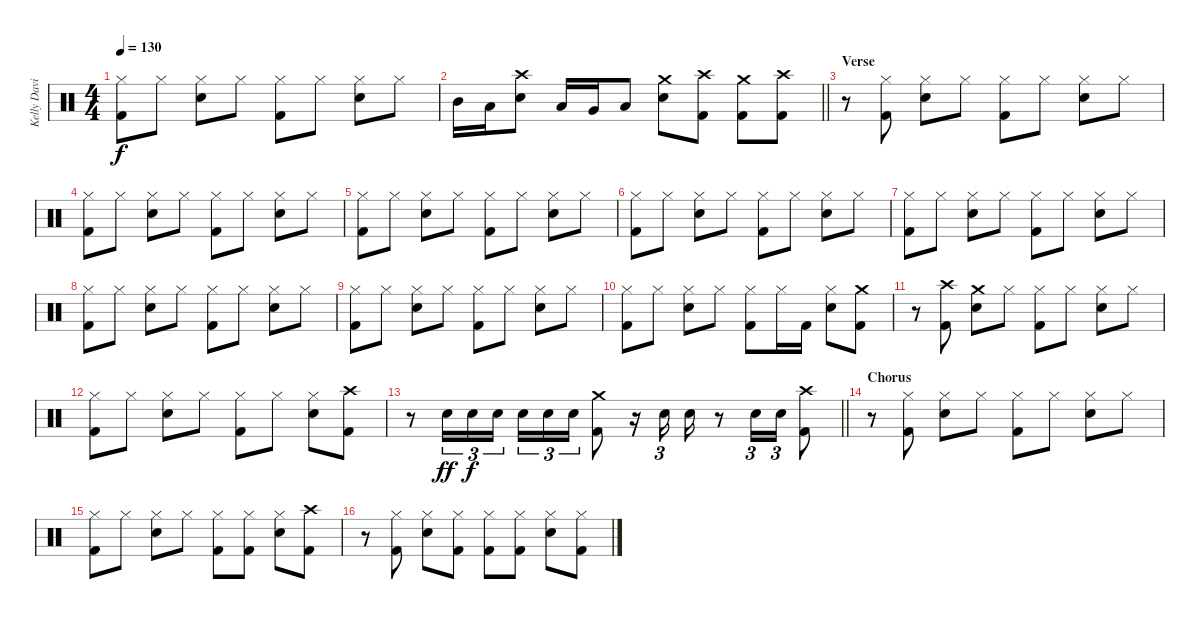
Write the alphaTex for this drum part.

\track ("Kelly David Smith" "Kelly Davi") {instrument percussion}
\staff {score}
\articulation defaults
\ts (4 4)
\tempo 130
\clef neutral
\ks c
("Hi-Hat (closed)" "Kick (hit) 2").8{dy f} "Hi-Hat (closed)".8 ("Hi-Hat (closed)" "Snare (hit) 2").8 "Hi-Hat (closed)".8 ("Hi-Hat (closed)" "Kick (hit) 2").8 "Hi-Hat (closed)".8 ("Hi-Hat (closed)" "Snare (hit) 2").8 "Hi-Hat (closed)".8 |
\barLineRight lightlight "Mid Tom (hit)".16 "Low Tom (hit)".16
("Crash high (hit)" "Snare (hit) 2").8 "Low Tom (hit)".16 "Very Low Tom (hit)".16 "Low Floor Tom (hit)".8 ("Crash medium (hit)" "Snare (hit) 2").8 ("Crash high (hit)" "Kick (hit) 2").8 ("Crash medium (hit)" "Kick (hit) 2").8 ("Crash high (hit)" "Kick (hit) 2").8 |
\section ("" "Verse")
r.8 ("Hi-Hat (closed)" "Kick (hit) 2").8 ("Hi-Hat (closed)" "Snare (hit) 2").8 "Hi-Hat (closed)".8 ("Hi-Hat (closed)" "Kick (hit) 2").8 "Hi-Hat (closed)".8 ("Hi-Hat (closed)" "Snare (hit) 2").8 "Hi-Hat (closed)".8 |
("Hi-Hat (closed)" "Kick (hit) 2").8 "Hi-Hat (closed)".8 ("Hi-Hat (closed)" "Snare (hit) 2").8 "Hi-Hat (closed)".8 ("Hi-Hat (closed)" "Kick (hit) 2").8 "Hi-Hat (closed)".8 ("Hi-Hat (closed)" "Snare (hit) 2").8 "Hi-Hat (closed)".8 |
("Hi-Hat (closed)" "Kick (hit) 2").8 "Hi-Hat (closed)".8 ("Hi-Hat (closed)" "Snare (hit) 2").8 "Hi-Hat (closed)".8 ("Hi-Hat (closed)" "Kick (hit) 2").8 "Hi-Hat (closed)".8 ("Hi-Hat (closed)" "Snare (hit) 2").8 "Hi-Hat (closed)".8 |
("Hi-Hat (closed)" "Kick (hit) 2").8 "Hi-Hat (closed)".8 ("Hi-Hat (closed)" "Snare (hit) 2").8 "Hi-Hat (closed)".8 ("Hi-Hat (closed)" "Kick (hit) 2").8 "Hi-Hat (closed)".8 ("Hi-Hat (closed)" "Snare (hit) 2").8 "Hi-Hat (closed)".8 |
("Hi-Hat (closed)" "Kick (hit) 2").8 "Hi-Hat (closed)".8 ("Hi-Hat (closed)" "Snare (hit) 2").8 "Hi-Hat (closed)".8 ("Hi-Hat (closed)" "Kick (hit) 2").8 "Hi-Hat (closed)".8 ("Hi-Hat (closed)" "Snare (hit) 2").8 "Hi-Hat (closed)".8 |
("Hi-Hat (closed)" "Kick (hit) 2").8 "Hi-Hat (closed)".8 ("Hi-Hat (closed)" "Snare (hit) 2").8 "Hi-Hat (closed)".8 ("Hi-Hat (closed)" "Kick (hit) 2").8 "Hi-Hat (closed)".8 ("Hi-Hat (closed)" "Snare (hit) 2").8 "Hi-Hat (closed)".8 |
("Hi-Hat (closed)" "Kick (hit) 2").8 "Hi-Hat (closed)".8 ("Hi-Hat (closed)" "Snare (hit) 2").8 "Hi-Hat (closed)".8 ("Hi-Hat (closed)" "Kick (hit) 2").8 "Hi-Hat (closed)".8 ("Hi-Hat (closed)" "Snare (hit) 2").8 "Hi-Hat (closed)".8 |
("Hi-Hat (closed)" "Kick (hit) 2").8 "Hi-Hat (closed)".8 ("Hi-Hat (closed)" "Snare (hit) 2").8 "Hi-Hat (closed)".8 ("Hi-Hat (closed)" "Kick (hit) 2").8 "Hi-Hat (closed)".16 "Kick (hit) 2".16 ("Hi-Hat (closed)" "Snare (hit) 2").8 ("Crash medium (hit)" "Kick (hit) 2").8 |
r.8 ("Crash high (hit)" "Kick (hit) 2").8 ("Crash medium (hit)" "Snare (hit) 2").8 "Hi-Hat (closed)".8 ("Hi-Hat (closed)" "Kick (hit) 2").8 "Hi-Hat (closed)".8 ("Hi-Hat (closed)" "Snare (hit) 2").8 "Hi-Hat (closed)".8 |
("Hi-Hat (closed)" "Kick (hit) 2").8 "Hi-Hat (closed)".8 ("Hi-Hat (closed)" "Snare (hit) 2").8 "Hi-Hat (closed)".8 ("Hi-Hat (closed)" "Kick (hit) 2").8 "Hi-Hat (closed)".8 ("Hi-Hat (closed)" "Snare (hit) 2").8 ("Crash high (hit)" "Kick (hit) 2").8 |
\barLineRight lightlight
r.8 "Snare (hit) 2".16{tu (3 2) dy ff} "Snare (hit) 2".16{tu (3 2) dy f} "Snare (hit) 2".16{tu (3 2)} "Snare (hit) 2".16{tu (3 2)} "Snare (hit) 2".16{tu (3 2)} "Snare (hit) 2".16{tu (3 2)} ("Crash medium (hit)" "Kick (hit) 2").8 r.16 "Snare (hit) 2".16{tu (3 2)} "Snare (hit) 2".16 r.8 "Snare (hit) 2".16{tu (3 2)} "Snare (hit) 2".16{tu (3 2)} ("Crash high (hit)" "Kick (hit) 2").8 |
\section ("" "Chorus")
r.8 ("Hi-Hat (closed)" "Kick (hit) 2").8 ("Hi-Hat (closed)" "Snare (hit) 2").8 "Hi-Hat (closed)".8 ("Hi-Hat (closed)" "Kick (hit) 2").8 "Hi-Hat (closed)".8 ("Hi-Hat (closed)" "Snare (hit) 2").8 "Hi-Hat (closed)".8 |
("Hi-Hat (closed)" "Kick (hit) 2").8 "Hi-Hat (closed)".8 ("Hi-Hat (closed)" "Snare (hit) 2").8 "Hi-Hat (closed)".8 ("Hi-Hat (closed)" "Kick (hit) 2").8 ("Hi-Hat (closed)" "Kick (hit) 2").8 ("Hi-Hat (closed)" "Snare (hit) 2").8 ("Crash high (hit)" "Kick (hit) 2").8 |
r.8 ("Hi-Hat (closed)" "Kick (hit) 2").8 ("Hi-Hat (closed)" "Snare (hit) 2").8 ("Hi-Hat (closed)" "Kick (hit) 2").8 ("Hi-Hat (closed)" "Kick (hit) 2").8 ("Hi-Hat (closed)" "Kick (hit) 2").8 ("Hi-Hat (closed)" "Snare (hit) 2").8 ("Hi-Hat (closed)" "Kick (hit) 2").8
